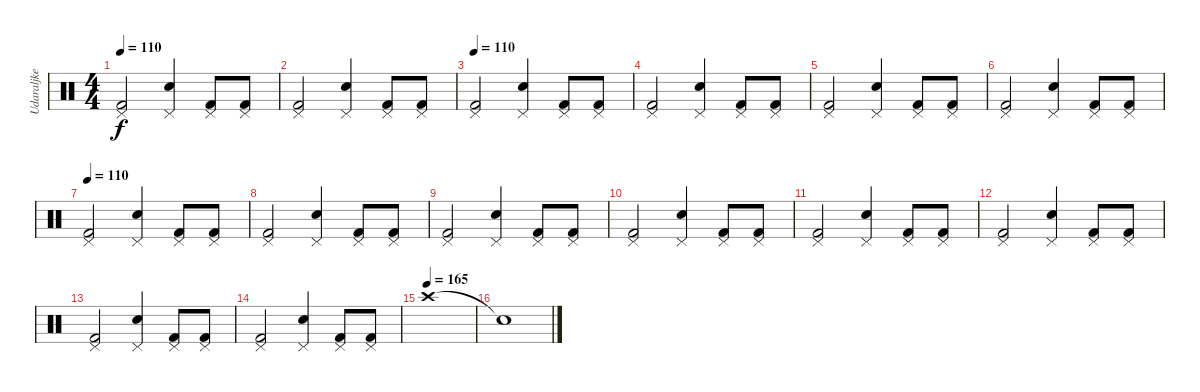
\track ("Udaraljke" "Udaraljke") {instrument percussion}
\staff {score}
\articulation defaults
\ts (4 4)
\tempo 110
\clef neutral
\ks c
("Kick (hit) 2" "Pedal Hi-Hat (hit)").2{dy f} ("Snare (hit) 2" "Pedal Hi-Hat (hit)").4 ("Kick (hit) 2" "Pedal Hi-Hat (hit)").8 ("Kick (hit) 2" "Pedal Hi-Hat (hit)").8 |
("Kick (hit) 2" "Pedal Hi-Hat (hit)").2 ("Snare (hit) 2" "Pedal Hi-Hat (hit)").4 ("Kick (hit) 2" "Pedal Hi-Hat (hit)").8 ("Kick (hit) 2" "Pedal Hi-Hat (hit)").8 |
\tempo 110
("Kick (hit) 2" "Pedal Hi-Hat (hit)").2 ("Snare (hit) 2" "Pedal Hi-Hat (hit)").4 ("Kick (hit) 2" "Pedal Hi-Hat (hit)").8 ("Kick (hit) 2" "Pedal Hi-Hat (hit)").8 |
("Kick (hit) 2" "Pedal Hi-Hat (hit)").2 ("Snare (hit) 2" "Pedal Hi-Hat (hit)").4 ("Kick (hit) 2" "Pedal Hi-Hat (hit)").8 ("Kick (hit) 2" "Pedal Hi-Hat (hit)").8 |
("Kick (hit) 2" "Pedal Hi-Hat (hit)").2 ("Snare (hit) 2" "Pedal Hi-Hat (hit)").4 ("Kick (hit) 2" "Pedal Hi-Hat (hit)").8 ("Kick (hit) 2" "Pedal Hi-Hat (hit)").8 |
("Kick (hit) 2" "Pedal Hi-Hat (hit)").2 ("Snare (hit) 2" "Pedal Hi-Hat (hit)").4 ("Kick (hit) 2" "Pedal Hi-Hat (hit)").8 ("Kick (hit) 2" "Pedal Hi-Hat (hit)").8 |
\tempo 110
("Kick (hit) 2" "Pedal Hi-Hat (hit)").2 ("Snare (hit) 2" "Pedal Hi-Hat (hit)").4 ("Kick (hit) 2" "Pedal Hi-Hat (hit)").8 ("Kick (hit) 2" "Pedal Hi-Hat (hit)").8 |
("Kick (hit) 2" "Pedal Hi-Hat (hit)").2 ("Snare (hit) 2" "Pedal Hi-Hat (hit)").4 ("Kick (hit) 2" "Pedal Hi-Hat (hit)").8 ("Kick (hit) 2" "Pedal Hi-Hat (hit)").8 |
("Kick (hit) 2" "Pedal Hi-Hat (hit)").2 ("Snare (hit) 2" "Pedal Hi-Hat (hit)").4 ("Kick (hit) 2" "Pedal Hi-Hat (hit)").8 ("Kick (hit) 2" "Pedal Hi-Hat (hit)").8 |
("Kick (hit) 2" "Pedal Hi-Hat (hit)").2 ("Snare (hit) 2" "Pedal Hi-Hat (hit)").4 ("Kick (hit) 2" "Pedal Hi-Hat (hit)").8 ("Kick (hit) 2" "Pedal Hi-Hat (hit)").8 |
("Kick (hit) 2" "Pedal Hi-Hat (hit)").2 ("Snare (hit) 2" "Pedal Hi-Hat (hit)").4 ("Kick (hit) 2" "Pedal Hi-Hat (hit)").8 ("Kick (hit) 2" "Pedal Hi-Hat (hit)").8 |
("Kick (hit) 2" "Pedal Hi-Hat (hit)").2 ("Snare (hit) 2" "Pedal Hi-Hat (hit)").4 ("Kick (hit) 2" "Pedal Hi-Hat (hit)").8 ("Kick (hit) 2" "Pedal Hi-Hat (hit)").8 |
("Kick (hit) 2" "Pedal Hi-Hat (hit)").2 ("Snare (hit) 2" "Pedal Hi-Hat (hit)").4 ("Kick (hit) 2" "Pedal Hi-Hat (hit)").8 ("Kick (hit) 2" "Pedal Hi-Hat (hit)").8 |
("Kick (hit) 2" "Pedal Hi-Hat (hit)").2 ("Snare (hit) 2" "Pedal Hi-Hat (hit)").4 ("Kick (hit) 2" "Pedal Hi-Hat (hit)").8 ("Kick (hit) 2" "Pedal Hi-Hat (hit)").8 |
\tempo (165)
"Crash high (hit)".1 |
"Snare (hit)"{t}.1
